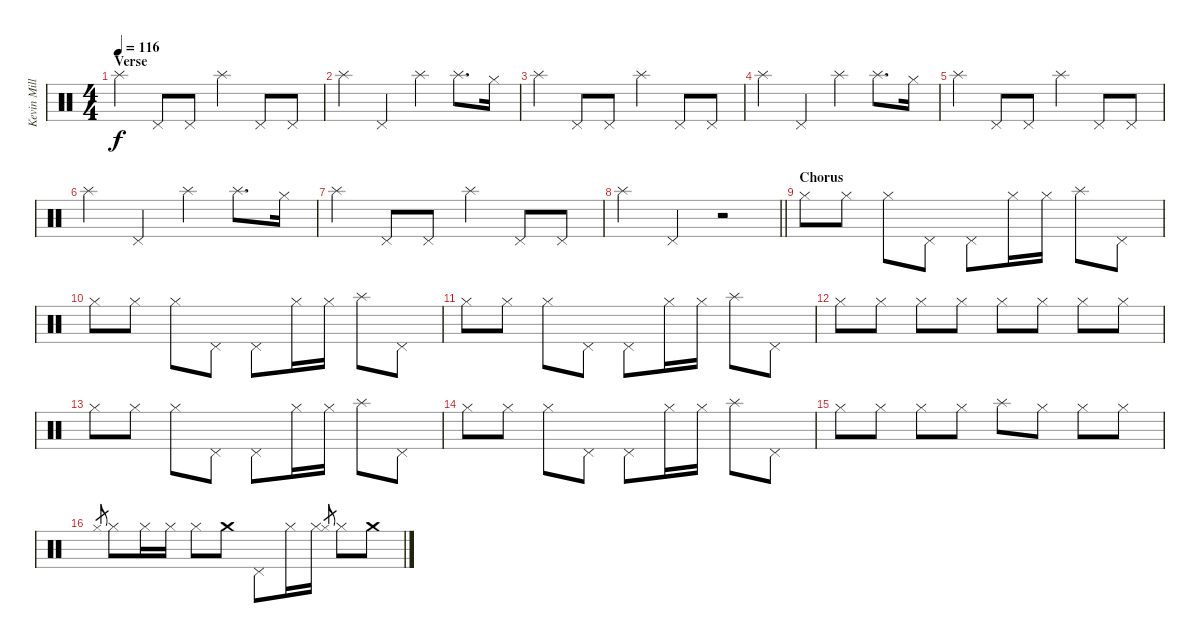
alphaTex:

\track ("Kevin Miller (Drums)" "Kevin Mill") {instrument percussion}
\staff {score}
\articulation defaults
\ts (4 4)
\section ("" "Verse")
\tempo 116
\clef neutral
\ks c "Splash (hit)".4{dy f} "Pedal Hi-Hat (hit)".8 "Pedal Hi-Hat (hit)".8 "Splash (hit)".4 "Pedal Hi-Hat (hit)".8 "Pedal Hi-Hat (hit)".8
|
"Splash (hit)".4 "Pedal Hi-Hat (hit)".4 "Splash (hit)".4 "Splash (hit)".8{d} "Hi-Hat (closed)".16 |
"Splash (hit)".4 "Pedal Hi-Hat (hit)".8 "Pedal Hi-Hat (hit)".8 "Splash (hit)".4 "Pedal Hi-Hat (hit)".8 "Pedal Hi-Hat (hit)".8 |
"Splash (hit)".4 "Pedal Hi-Hat (hit)".4 "Splash (hit)".4 "Splash (hit)".8{d} "Hi-Hat (closed)".16 |
"Splash (hit)".4 "Pedal Hi-Hat (hit)".8 "Pedal Hi-Hat (hit)".8 "Splash (hit)".4 "Pedal Hi-Hat (hit)".8 "Pedal Hi-Hat (hit)".8 |
"Splash (hit)".4 "Pedal Hi-Hat (hit)".4 "Splash (hit)".4 "Splash (hit)".8{d} "Hi-Hat (closed)".16 |
"Splash (hit)".4 "Pedal Hi-Hat (hit)".8 "Pedal Hi-Hat (hit)".8 "Splash (hit)".4 "Pedal Hi-Hat (hit)".8 "Pedal Hi-Hat (hit)".8 |
\barLineRight lightlight "Splash (hit)".4 "Pedal Hi-Hat (hit)".4
r.2 |
\section ("" "Chorus")
"Hi-Hat (closed)".8 "Hi-Hat (closed)".8 "Hi-Hat (closed)".8 "Pedal Hi-Hat (hit)".8 "Pedal Hi-Hat (hit)".8 "Hi-Hat (closed)".16 "Hi-Hat (closed)".16 "Splash (hit)".8 "Pedal Hi-Hat (hit)".8 |
"Hi-Hat (closed)".8 "Hi-Hat (closed)".8 "Hi-Hat (closed)".8 "Pedal Hi-Hat (hit)".8 "Pedal Hi-Hat (hit)".8 "Hi-Hat (closed)".16 "Hi-Hat (closed)".16 "Splash (hit)".8 "Pedal Hi-Hat (hit)".8 |
"Hi-Hat (closed)".8 "Hi-Hat (closed)".8 "Hi-Hat (closed)".8 "Pedal Hi-Hat (hit)".8 "Pedal Hi-Hat (hit)".8 "Hi-Hat (closed)".16 "Hi-Hat (closed)".16 "Splash (hit)".8 "Pedal Hi-Hat (hit)".8 |
"Hi-Hat (closed)".8 "Hi-Hat (closed)".8 "Hi-Hat (closed)".8 "Hi-Hat (closed)".8 "Hi-Hat (closed)".8 "Hi-Hat (closed)".8 "Hi-Hat (closed)".8 "Hi-Hat (closed)".8 |
"Hi-Hat (closed)".8 "Hi-Hat (closed)".8 "Hi-Hat (closed)".8 "Pedal Hi-Hat (hit)".8 "Pedal Hi-Hat (hit)".8 "Hi-Hat (closed)".16 "Hi-Hat (closed)".16 "Splash (hit)".8 "Pedal Hi-Hat (hit)".8 |
"Hi-Hat (closed)".8 "Hi-Hat (closed)".8 "Hi-Hat (closed)".8 "Pedal Hi-Hat (hit)".8 "Pedal Hi-Hat (hit)".8 "Hi-Hat (closed)".16 "Hi-Hat (closed)".16 "Splash (hit)".8 "Pedal Hi-Hat (hit)".8 |
"Hi-Hat (closed)".8 "Hi-Hat (closed)".8 "Hi-Hat (closed)".8 "Hi-Hat (closed)".8 "Splash (hit)".8 "Hi-Hat (closed)".8 "Hi-Hat (closed)".8 "Hi-Hat (closed)".8 |
"Hi-Hat (closed)".8{gr} "Hi-Hat (closed)".8 "Hi-Hat (closed)".16 "Hi-Hat (closed)".16 "Hi-Hat (closed)".8 "Crash medium (hit)".8 "Pedal Hi-Hat (hit)".8 "Hi-Hat (closed)".16 "Hi-Hat (closed)".16 "Hi-Hat (closed)".8{gr} "Hi-Hat (closed)".8 "Crash medium (hit)".8
